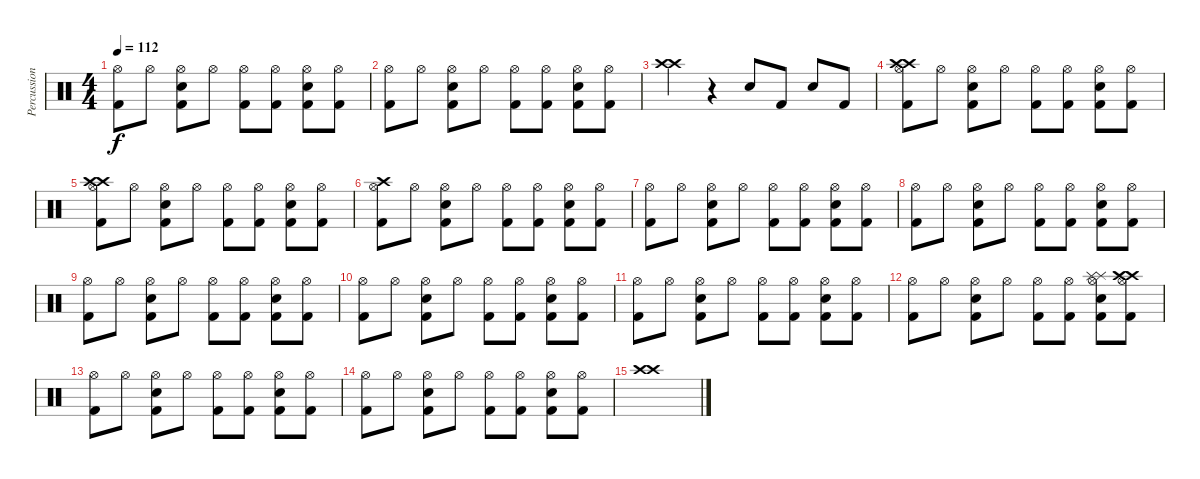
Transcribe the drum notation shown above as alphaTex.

\track ("Percussion" "Percussion") {instrument percussion}
\staff {score}
\articulation defaults
\ts (4 4)
\tempo 112
\clef neutral
\ks c
("Hi-Hat (open)" "Kick (hit) 2").8{dy f} "Hi-Hat (open)".8 ("Hi-Hat (open)" "Electric Snare (hit)" "Kick (hit) 2").8 "Hi-Hat (open)".8 ("Hi-Hat (open)" "Kick (hit) 2").8 ("Hi-Hat (open)" "Kick (hit) 2").8 ("Hi-Hat (open)" "Electric Snare (hit)" "Kick (hit) 2").8 ("Hi-Hat (open)" "Kick (hit) 2").8 |
("Hi-Hat (open)" "Kick (hit) 2").8 "Hi-Hat (open)".8 ("Hi-Hat (open)" "Electric Snare (hit)" "Kick (hit) 2").8 "Hi-Hat (open)".8 ("Hi-Hat (open)" "Kick (hit) 2").8 ("Hi-Hat (open)" "Kick (hit) 2").8 ("Hi-Hat (open)" "Electric Snare (hit)" "Kick (hit) 2").8 ("Hi-Hat (open)" "Kick (hit) 2").8 |
("Crash high (hit)" "Crash high (hit)").4 r.4 "Electric Snare (hit)".8 "Kick (hit) 2".8 "Electric Snare (hit)".8 "Kick (hit) 2".8 |
("Hi-Hat (open)" "Crash high (hit)" "Crash high (hit)" "Kick (hit) 2").8 "Hi-Hat (open)".8 ("Hi-Hat (open)" "Electric Snare (hit)" "Kick (hit) 2").8 "Hi-Hat (open)".8 ("Hi-Hat (open)" "Kick (hit) 2").8 ("Hi-Hat (open)" "Kick (hit) 2").8 ("Hi-Hat (open)" "Electric Snare (hit)" "Kick (hit) 2").8 ("Hi-Hat (open)" "Kick (hit) 2").8 |
("Hi-Hat (open)" "Crash high (hit)" "Crash high (hit)" "Kick (hit) 2").8 "Hi-Hat (open)".8 ("Hi-Hat (open)" "Electric Snare (hit)" "Kick (hit) 2").8 "Hi-Hat (open)".8 ("Hi-Hat (open)" "Kick (hit) 2").8 ("Hi-Hat (open)" "Kick (hit) 2").8 ("Hi-Hat (open)" "Electric Snare (hit)" "Kick (hit) 2").8 ("Hi-Hat (open)" "Kick (hit) 2").8 |
("Hi-Hat (open)" "Crash high (hit)" "Kick (hit) 2").8 "Hi-Hat (open)".8 ("Hi-Hat (open)" "Electric Snare (hit)" "Kick (hit) 2").8 "Hi-Hat (open)".8 ("Hi-Hat (open)" "Kick (hit) 2").8 ("Hi-Hat (open)" "Kick (hit) 2").8 ("Hi-Hat (open)" "Electric Snare (hit)" "Kick (hit) 2").8 ("Hi-Hat (open)" "Kick (hit) 2").8 |
("Hi-Hat (open)" "Kick (hit) 2").8 "Hi-Hat (open)".8 ("Hi-Hat (open)" "Electric Snare (hit)" "Kick (hit) 2").8 "Hi-Hat (open)".8 ("Hi-Hat (open)" "Kick (hit) 2").8 ("Hi-Hat (open)" "Kick (hit) 2").8 ("Hi-Hat (open)" "Electric Snare (hit)" "Kick (hit) 2").8 ("Hi-Hat (open)" "Kick (hit) 2").8 |
("Hi-Hat (open)" "Kick (hit) 2").8 "Hi-Hat (open)".8 ("Hi-Hat (open)" "Electric Snare (hit)" "Kick (hit) 2").8 "Hi-Hat (open)".8 ("Hi-Hat (open)" "Kick (hit) 2").8 ("Hi-Hat (open)" "Kick (hit) 2").8 ("Hi-Hat (open)" "Electric Snare (hit)" "Kick (hit) 2").8 ("Hi-Hat (open)" "Kick (hit) 2").8 |
("Hi-Hat (open)" "Kick (hit) 2").8 "Hi-Hat (open)".8 ("Hi-Hat (open)" "Electric Snare (hit)" "Kick (hit) 2").8 "Hi-Hat (open)".8 ("Hi-Hat (open)" "Kick (hit) 2").8 ("Hi-Hat (open)" "Kick (hit) 2").8 ("Hi-Hat (open)" "Electric Snare (hit)" "Kick (hit) 2").8 ("Hi-Hat (open)" "Kick (hit) 2").8 |
("Hi-Hat (open)" "Kick (hit) 2").8 "Hi-Hat (open)".8 ("Hi-Hat (open)" "Electric Snare (hit)" "Kick (hit) 2").8 "Hi-Hat (open)".8 ("Hi-Hat (open)" "Kick (hit) 2").8 ("Hi-Hat (open)" "Kick (hit) 2").8 ("Hi-Hat (open)" "Electric Snare (hit)" "Kick (hit) 2").8 ("Hi-Hat (open)" "Kick (hit) 2").8 |
("Hi-Hat (open)" "Kick (hit) 2").8 "Hi-Hat (open)".8 ("Hi-Hat (open)" "Electric Snare (hit)" "Kick (hit) 2").8 "Hi-Hat (open)".8 ("Hi-Hat (open)" "Kick (hit) 2").8 ("Hi-Hat (open)" "Kick (hit) 2").8 ("Hi-Hat (open)" "Electric Snare (hit)" "Kick (hit) 2").8 ("Hi-Hat (open)" "Kick (hit) 2").8 |
("Hi-Hat (open)" "Kick (hit) 2").8 "Hi-Hat (open)".8 ("Hi-Hat (open)" "Electric Snare (hit)" "Kick (hit) 2").8 "Hi-Hat (open)".8 ("Hi-Hat (open)" "Kick (hit) 2").8 ("Hi-Hat (open)" "Kick (hit) 2").8 ("Hi-Hat (open)" "Splash (hit)" "Splash (hit)" "Electric Snare (hit)" "Kick (hit) 2").8 ("Hi-Hat (open)" "Crash high (hit)" "Crash high (hit)" "Kick (hit) 2").8 |
("Hi-Hat (open)" "Kick (hit) 2").8 "Hi-Hat (open)".8 ("Hi-Hat (open)" "Electric Snare (hit)" "Kick (hit) 2").8 "Hi-Hat (open)".8 ("Hi-Hat (open)" "Kick (hit) 2").8 ("Hi-Hat (open)" "Kick (hit) 2").8 ("Hi-Hat (open)" "Electric Snare (hit)" "Kick (hit) 2").8 ("Hi-Hat (open)" "Kick (hit) 2").8 |
("Hi-Hat (open)" "Kick (hit) 2").8 "Hi-Hat (open)".8 ("Hi-Hat (open)" "Electric Snare (hit)" "Kick (hit) 2").8 "Hi-Hat (open)".8 ("Hi-Hat (open)" "Kick (hit) 2").8 ("Hi-Hat (open)" "Kick (hit) 2").8 ("Hi-Hat (open)" "Electric Snare (hit)" "Kick (hit) 2").8 ("Hi-Hat (open)" "Kick (hit) 2").8 |
("Crash high (hit)" "Crash high (hit)").1
